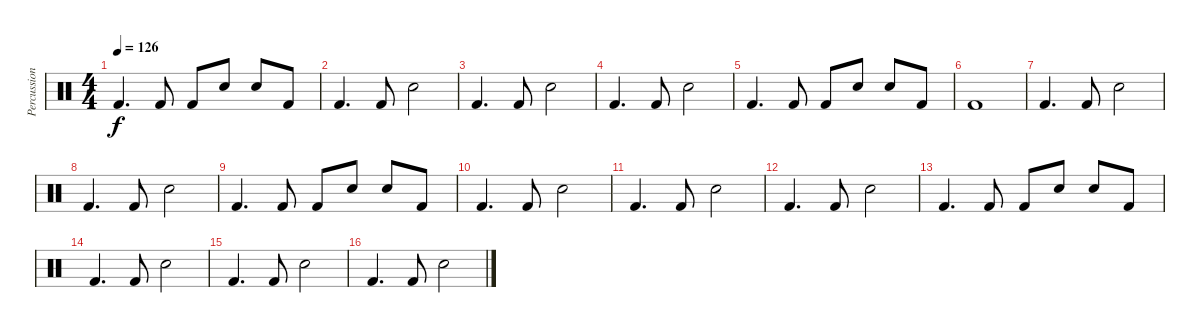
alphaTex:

\track ("Percussioni" "Percussion") {instrument percussion}
\staff {score}
\articulation defaults
\ts (4 4)
\tempo 126
\clef neutral
\ks c "Kick (hit) 2".4{d dy f} "Kick (hit) 2".8 "Kick (hit) 2".8 "Snare (hit) 2".8 "Snare (hit) 2".8 "Kick (hit) 2".8
|
"Kick (hit) 2".4{d} "Kick (hit) 2".8 "Snare (hit) 2".2 |
"Kick (hit) 2".4{d} "Kick (hit) 2".8 "Snare (hit) 2".2 |
"Kick (hit) 2".4{d} "Kick (hit) 2".8 "Snare (hit) 2".2 |
"Kick (hit) 2".4{d} "Kick (hit) 2".8 "Kick (hit) 2".8 "Snare (hit) 2".8 "Snare (hit) 2".8 "Kick (hit) 2".8 |
"Kick (hit) 2".1 |
"Kick (hit) 2".4{d} "Kick (hit) 2".8 "Snare (hit) 2".2 |
"Kick (hit) 2".4{d} "Kick (hit) 2".8 "Snare (hit) 2".2 |
"Kick (hit) 2".4{d} "Kick (hit) 2".8 "Kick (hit) 2".8 "Snare (hit) 2".8 "Snare (hit) 2".8 "Kick (hit) 2".8 |
"Kick (hit) 2".4{d} "Kick (hit) 2".8 "Snare (hit) 2".2 |
"Kick (hit) 2".4{d} "Kick (hit) 2".8 "Snare (hit) 2".2 |
"Kick (hit) 2".4{d} "Kick (hit) 2".8 "Snare (hit) 2".2 |
"Kick (hit) 2".4{d} "Kick (hit) 2".8 "Kick (hit) 2".8 "Snare (hit) 2".8 "Snare (hit) 2".8 "Kick (hit) 2".8 |
"Kick (hit) 2".4{d} "Kick (hit) 2".8 "Snare (hit) 2".2 |
"Kick (hit) 2".4{d} "Kick (hit) 2".8 "Snare (hit) 2".2 |
"Kick (hit) 2".4{d} "Kick (hit) 2".8 "Snare (hit) 2".2
